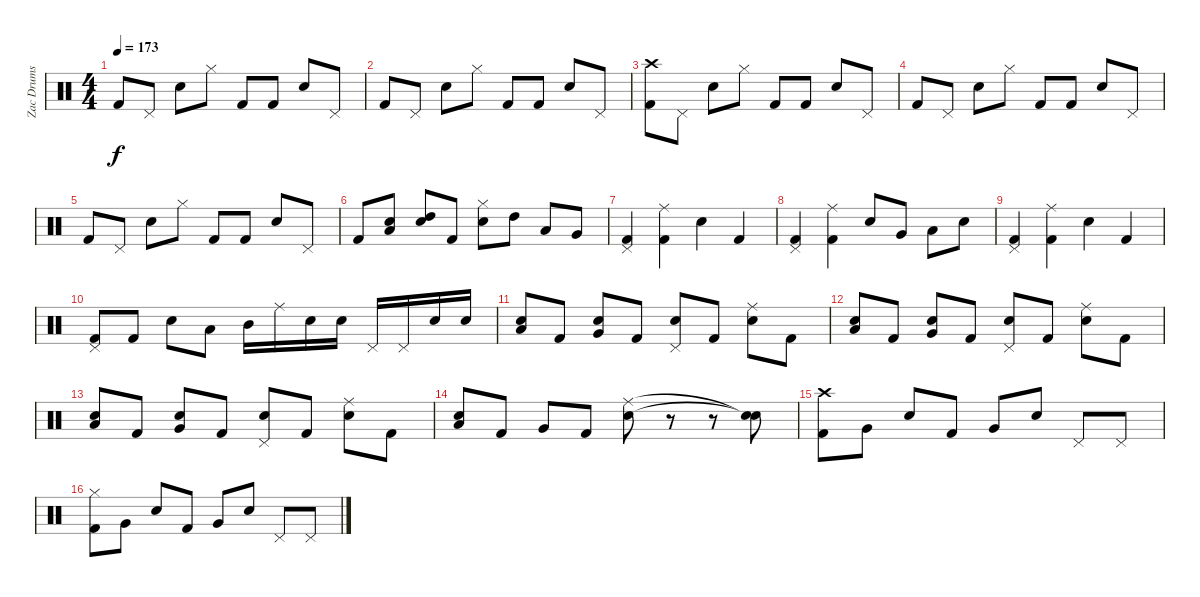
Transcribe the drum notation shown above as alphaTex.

\track ("Zac Drums" "Zac Drums") {instrument percussion}
\staff {score}
\articulation defaults
\ts (4 4)
\tempo 173
\clef neutral
\ks c "Kick (hit) 2".8{dy f} "Pedal Hi-Hat (hit)".8 "Electric Snare (hit)".8 "Hi-Hat (closed)".8 "Kick (hit) 2".8 "Kick (hit) 2".8 "Electric Snare (hit)".8 "Pedal Hi-Hat (hit)".8
|
"Kick (hit) 2".8 "Pedal Hi-Hat (hit)".8 "Electric Snare (hit)".8 "Hi-Hat (closed)".8 "Kick (hit) 2".8 "Kick (hit) 2".8 "Electric Snare (hit)".8 "Pedal Hi-Hat (hit)".8 |
("Crash high (hit)" "Kick (hit) 2").8 "Pedal Hi-Hat (hit)".8 "Electric Snare (hit)".8 "Hi-Hat (closed)".8 "Kick (hit) 2".8 "Kick (hit) 2".8 "Electric Snare (hit)".8 "Pedal Hi-Hat (hit)".8 |
"Kick (hit) 2".8 "Pedal Hi-Hat (hit)".8 "Electric Snare (hit)".8 "Hi-Hat (closed)".8 "Kick (hit) 2".8 "Kick (hit) 2".8 "Electric Snare (hit)".8 "Pedal Hi-Hat (hit)".8 |
"Kick (hit) 2".8 "Pedal Hi-Hat (hit)".8 "Electric Snare (hit)".8 "Hi-Hat (closed)".8 "Kick (hit) 2".8 "Kick (hit) 2".8 "Electric Snare (hit)".8 "Pedal Hi-Hat (hit)".8 |
"Kick (hit) 2".8 ("Low Tom (hit)" "Electric Snare (hit)").8 ("High Tom (hit)" "Electric Snare (hit)").8 "Kick (hit) 2".8 ("Hi-Hat (closed)" "Electric Snare (hit)").8 "High Tom (hit)".8 "Low Tom (hit)".8 "Very Low Tom (hit)".8 |
("Pedal Hi-Hat (hit)" "Kick (hit) 2").4 ("Ride (middle)" "Kick (hit) 2").4 "Electric Snare (hit)".4 "Kick (hit) 2".4 |
("Pedal Hi-Hat (hit)" "Kick (hit) 2").4 ("Ride (middle)" "Kick (hit) 2").4 "Electric Snare (hit)".8 "Very Low Tom (hit)".8 "Low Tom (hit)".8 "Electric Snare (hit)".8 |
("Pedal Hi-Hat (hit)" "Kick (hit) 2").4 ("Ride (middle)" "Kick (hit) 2").4 "Electric Snare (hit)".4 "Kick (hit) 2".4 |
("Pedal Hi-Hat (hit)" "Kick (hit) 2").8 "Kick (hit) 2".8 "Electric Snare (hit)".8 "Low Tom (hit)".8 "Mid Tom (hit)".16 "Ride (middle)".16 "Electric Snare (hit)".16 "Electric Snare (hit)".16 "Pedal Hi-Hat (hit)".16 "Pedal Hi-Hat (hit)".16 "Electric Snare (hit)".16 "Electric Snare (hit)".16 |
("Low Tom (hit)" "Electric Snare (hit)").8 "Kick (hit) 2".8 ("Very Low Tom (hit)" "Electric Snare (hit)").8 "Kick (hit) 2".8 ("Pedal Hi-Hat (hit)" "Electric Snare (hit)").8 "Kick (hit) 2".8 ("Ride (middle)" "Electric Snare (hit)").8 "Kick (hit) 2".8 |
("Low Tom (hit)" "Electric Snare (hit)").8 "Kick (hit) 2".8 ("Very Low Tom (hit)" "Electric Snare (hit)").8 "Kick (hit) 2".8 ("Pedal Hi-Hat (hit)" "Electric Snare (hit)").8 "Kick (hit) 2".8 ("Ride (middle)" "Electric Snare (hit)").8 "Kick (hit) 2".8 |
("Low Tom (hit)" "Electric Snare (hit)").8 "Kick (hit) 2".8 ("Very Low Tom (hit)" "Electric Snare (hit)").8 "Kick (hit) 2".8 ("Pedal Hi-Hat (hit)" "Electric Snare (hit)").8 "Kick (hit) 2".8 ("Ride (middle)" "Electric Snare (hit)").8 "Kick (hit) 2".8 |
("Low Tom (hit)" "Electric Snare (hit)").8 "Kick (hit) 2".8 "Very Low Tom (hit)".8 "Kick (hit) 2".8 ("Ride (middle)" "Electric Snare (hit)").8 r.8 r.8 ("Snare (hit)"{t} "Snare (hit)"{t}).8 |
("Crash high (hit)" "Kick (hit) 2").8 "Very Low Tom (hit)".8 "Electric Snare (hit)".8 "Kick (hit) 2".8 "Very Low Tom (hit)".8 "Electric Snare (hit)".8 "Pedal Hi-Hat (hit)".8 "Pedal Hi-Hat (hit)".8 |
("Hi-Hat (closed)" "Kick (hit) 2").8 "Very Low Tom (hit)".8 "Electric Snare (hit)".8 "Kick (hit) 2".8 "Very Low Tom (hit)".8 "Electric Snare (hit)".8 "Pedal Hi-Hat (hit)".8 "Pedal Hi-Hat (hit)".8
